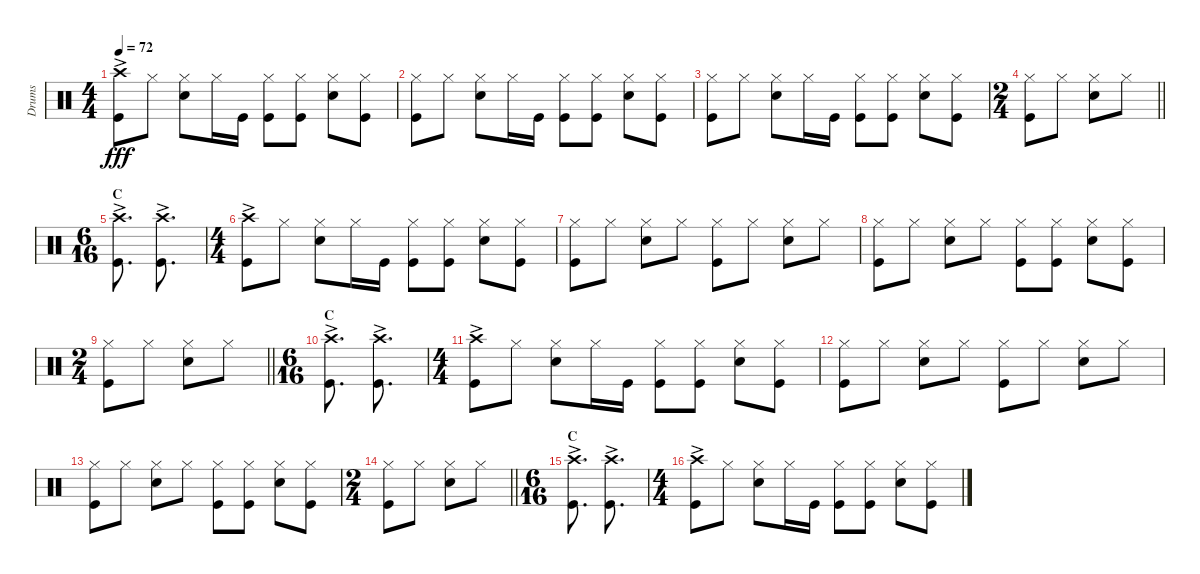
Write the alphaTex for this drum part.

\track ("Drums" "Drums") {instrument percussion}
\staff {score}
\articulation defaults
\ts (4 4)
\tempo 72
\clef neutral
\ks c
("Crash high (hit)"{ac} "Kick (hit)").8{dy fff} "Hi-Hat (closed)".8 ("Hi-Hat (closed)" "Snare (hit) 2").8 "Hi-Hat (closed)".16 "Kick (hit)".16 ("Hi-Hat (closed)" "Kick (hit)").8 ("Hi-Hat (closed)" "Kick (hit)").8 ("Hi-Hat (closed)" "Snare (hit) 2").8 ("Hi-Hat (closed)" "Kick (hit)").8 |
("Hi-Hat (closed)" "Kick (hit)").8 "Hi-Hat (closed)".8 ("Hi-Hat (closed)" "Snare (hit) 2").8 "Hi-Hat (closed)".16 "Kick (hit)".16 ("Hi-Hat (closed)" "Kick (hit)").8 ("Hi-Hat (closed)" "Kick (hit)").8 ("Hi-Hat (closed)" "Snare (hit) 2").8 ("Hi-Hat (closed)" "Kick (hit)").8 |
("Hi-Hat (closed)" "Kick (hit)").8 "Hi-Hat (closed)".8 ("Hi-Hat (closed)" "Snare (hit) 2").8 "Hi-Hat (closed)".16 "Kick (hit)".16 ("Hi-Hat (closed)" "Kick (hit)").8 ("Hi-Hat (closed)" "Kick (hit)").8 ("Hi-Hat (closed)" "Snare (hit) 2").8 ("Hi-Hat (closed)" "Kick (hit)").8 |
\ts (2 4)
\barLineRight lightlight
("Hi-Hat (closed)" "Kick (hit)").8 "Hi-Hat (closed)".8 ("Hi-Hat (closed)" "Snare (hit) 2").8 "Hi-Hat (closed)".8 |
\ts (6 16)
\section ("" "C")
("Crash high (hit)"{ac} "Kick (hit)").8{d} ("Crash high (hit)"{ac} "Kick (hit)").8{d} |
\ts (4 4)
("Crash high (hit)"{ac} "Kick (hit)").8 "Hi-Hat (closed)".8 ("Hi-Hat (closed)" "Snare (hit) 2").8 "Hi-Hat (closed)".16 "Kick (hit)".16 ("Hi-Hat (closed)" "Kick (hit)").8 ("Hi-Hat (closed)" "Kick (hit)").8 ("Hi-Hat (closed)" "Snare (hit) 2").8 ("Hi-Hat (closed)" "Kick (hit)").8 |
("Hi-Hat (closed)" "Kick (hit)").8 "Hi-Hat (closed)".8 ("Hi-Hat (closed)" "Snare (hit) 2").8 "Hi-Hat (closed)".8 ("Hi-Hat (closed)" "Kick (hit)").8 "Hi-Hat (closed)".8 ("Hi-Hat (closed)" "Snare (hit) 2").8 "Hi-Hat (closed)".8 |
("Hi-Hat (closed)" "Kick (hit)").8 "Hi-Hat (closed)".8 ("Hi-Hat (closed)" "Snare (hit) 2").8 "Hi-Hat (closed)".8 ("Hi-Hat (closed)" "Kick (hit)").8 ("Hi-Hat (closed)" "Kick (hit)").8 ("Hi-Hat (closed)" "Snare (hit) 2").8 ("Hi-Hat (closed)" "Kick (hit)").8 |
\ts (2 4)
\barLineRight lightlight
("Hi-Hat (closed)" "Kick (hit)").8 "Hi-Hat (closed)".8 ("Hi-Hat (closed)" "Snare (hit) 2").8 "Hi-Hat (closed)".8 |
\ts (6 16)
\section ("" "C")
("Crash high (hit)"{ac} "Kick (hit)").8{d} ("Crash high (hit)"{ac} "Kick (hit)").8{d} |
\ts (4 4)
("Crash high (hit)"{ac} "Kick (hit)").8 "Hi-Hat (closed)".8 ("Hi-Hat (closed)" "Snare (hit) 2").8 "Hi-Hat (closed)".16 "Kick (hit)".16 ("Hi-Hat (closed)" "Kick (hit)").8 ("Hi-Hat (closed)" "Kick (hit)").8 ("Hi-Hat (closed)" "Snare (hit) 2").8 ("Hi-Hat (closed)" "Kick (hit)").8 |
("Hi-Hat (closed)" "Kick (hit)").8 "Hi-Hat (closed)".8 ("Hi-Hat (closed)" "Snare (hit) 2").8 "Hi-Hat (closed)".8 ("Hi-Hat (closed)" "Kick (hit)").8 "Hi-Hat (closed)".8 ("Hi-Hat (closed)" "Snare (hit) 2").8 "Hi-Hat (closed)".8 |
("Hi-Hat (closed)" "Kick (hit)").8 "Hi-Hat (closed)".8 ("Hi-Hat (closed)" "Snare (hit) 2").8 "Hi-Hat (closed)".8 ("Hi-Hat (closed)" "Kick (hit)").8 ("Hi-Hat (closed)" "Kick (hit)").8 ("Hi-Hat (closed)" "Snare (hit) 2").8 ("Hi-Hat (closed)" "Kick (hit)").8 |
\ts (2 4)
\barLineRight lightlight
("Hi-Hat (closed)" "Kick (hit)").8 "Hi-Hat (closed)".8 ("Hi-Hat (closed)" "Snare (hit) 2").8 "Hi-Hat (closed)".8 |
\ts (6 16)
\section ("" "C")
("Crash high (hit)"{ac} "Kick (hit)").8{d} ("Crash high (hit)"{ac} "Kick (hit)").8{d} |
\ts (4 4)
("Crash high (hit)"{ac} "Kick (hit)").8 "Hi-Hat (closed)".8 ("Hi-Hat (closed)" "Snare (hit) 2").8 "Hi-Hat (closed)".16 "Kick (hit)".16 ("Hi-Hat (closed)" "Kick (hit)").8 ("Hi-Hat (closed)" "Kick (hit)").8 ("Hi-Hat (closed)" "Snare (hit) 2").8 ("Hi-Hat (closed)" "Kick (hit)").8
